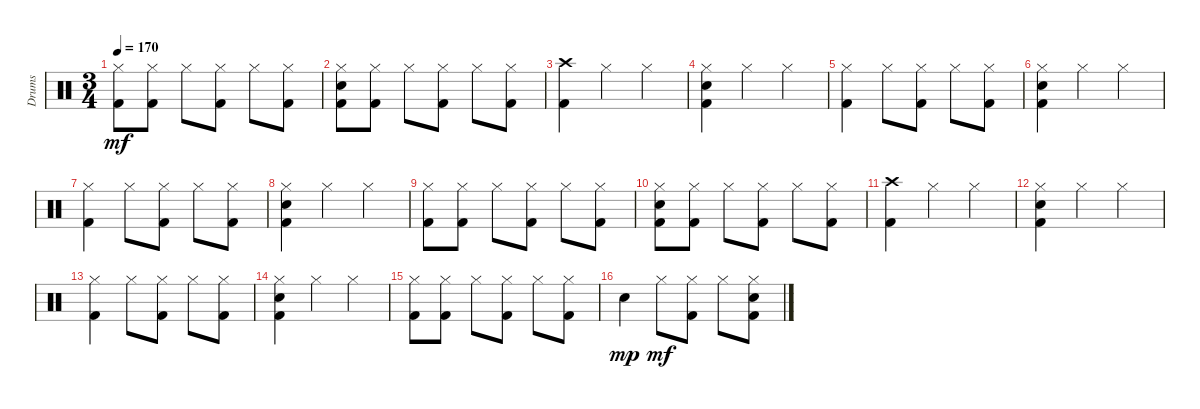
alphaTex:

\track ("Drums" "Drums") {instrument percussion}
\staff {score}
\articulation defaults
\ts (3 4)
\tempo 170
\clef neutral
\ks c
("Hi-Hat (closed)" "Kick (hit) 2").8{dy mf} ("Hi-Hat (closed)" "Kick (hit) 2").8 "Hi-Hat (closed)".8 ("Hi-Hat (closed)" "Kick (hit) 2").8 "Hi-Hat (closed)".8 ("Hi-Hat (closed)" "Kick (hit) 2").8 |
("Hi-Hat (closed)" "Snare (hit) 2" "Kick (hit) 2").8 ("Hi-Hat (closed)" "Kick (hit) 2").8 "Hi-Hat (closed)".8 ("Hi-Hat (closed)" "Kick (hit) 2").8 "Hi-Hat (closed)".8 ("Hi-Hat (closed)" "Kick (hit) 2").8 |
("Crash high (hit)" "Kick (hit) 2").4 "Hi-Hat (closed)".4 "Hi-Hat (closed)".4 |
("Hi-Hat (closed)" "Snare (hit) 2" "Kick (hit) 2").4 "Hi-Hat (closed)".4 "Hi-Hat (closed)".4 |
("Hi-Hat (closed)" "Kick (hit) 2").4 "Hi-Hat (closed)".8 ("Hi-Hat (closed)" "Kick (hit) 2").8 "Hi-Hat (closed)".8 ("Hi-Hat (closed)" "Kick (hit) 2").8 |
("Hi-Hat (closed)" "Snare (hit) 2" "Kick (hit) 2").4 "Hi-Hat (closed)".4 "Hi-Hat (closed)".4 |
("Hi-Hat (closed)" "Kick (hit) 2").4 "Hi-Hat (closed)".8 ("Hi-Hat (closed)" "Kick (hit) 2").8 "Hi-Hat (closed)".8 ("Hi-Hat (closed)" "Kick (hit) 2").8 |
("Hi-Hat (closed)" "Snare (hit) 2" "Kick (hit) 2").4 "Hi-Hat (closed)".4 "Hi-Hat (closed)".4 |
("Hi-Hat (closed)" "Kick (hit) 2").8 ("Hi-Hat (closed)" "Kick (hit) 2").8 "Hi-Hat (closed)".8 ("Hi-Hat (closed)" "Kick (hit) 2").8 "Hi-Hat (closed)".8 ("Hi-Hat (closed)" "Kick (hit) 2").8 |
("Hi-Hat (closed)" "Snare (hit) 2" "Kick (hit) 2").8 ("Hi-Hat (closed)" "Kick (hit) 2").8 "Hi-Hat (closed)".8 ("Hi-Hat (closed)" "Kick (hit) 2").8 "Hi-Hat (closed)".8 ("Hi-Hat (closed)" "Kick (hit) 2").8 |
("Crash high (hit)" "Kick (hit) 2").4 "Hi-Hat (closed)".4 "Hi-Hat (closed)".4 |
("Hi-Hat (closed)" "Snare (hit) 2" "Kick (hit) 2").4 "Hi-Hat (closed)".4 "Hi-Hat (closed)".4 |
("Hi-Hat (closed)" "Kick (hit) 2").4 "Hi-Hat (closed)".8 ("Hi-Hat (closed)" "Kick (hit) 2").8 "Hi-Hat (closed)".8 ("Hi-Hat (closed)" "Kick (hit) 2").8 |
("Hi-Hat (closed)" "Snare (hit) 2" "Kick (hit) 2").4 "Hi-Hat (closed)".4 "Hi-Hat (closed)".4 |
("Hi-Hat (closed)" "Kick (hit) 2").8 ("Hi-Hat (closed)" "Kick (hit) 2").8 "Hi-Hat (closed)".8 ("Hi-Hat (closed)" "Kick (hit) 2").8 "Hi-Hat (closed)".8 ("Hi-Hat (closed)" "Kick (hit) 2").8 |
"Snare (hit) 2".4{dy mp} "Hi-Hat (closed)".8{dy mf} ("Hi-Hat (closed)" "Kick (hit) 2").8 "Hi-Hat (closed)".8 ("Hi-Hat (closed)" "Snare (hit) 2" "Kick (hit) 2").8
